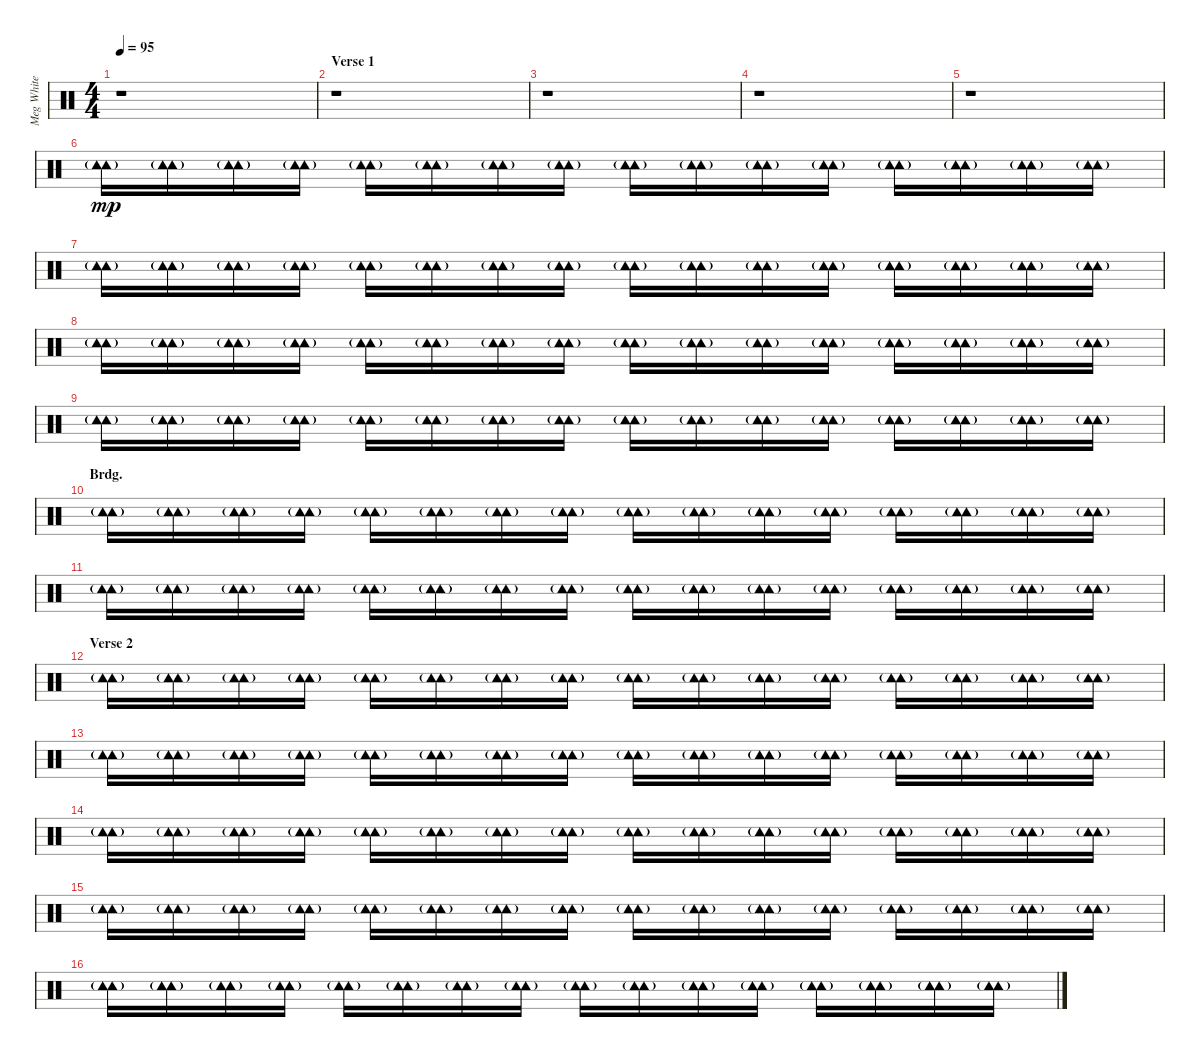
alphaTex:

\track ("Meg White - Purcussions" "Meg White ") {instrument percussion}
\staff {score}
\articulation defaults
\ts (4 4)
\tempo 95
\clef neutral
\ks c
r.1{dy mp} |
\section ("" "Verse 1")
r.1 |
r.1 |
r.1 |
r.1 |
("Tambourine (hit)"{g} "Tambourine (hit)"{g}).16 ("Tambourine (hit)"{g} "Tambourine (hit)"{g}).16 ("Tambourine (hit)"{g} "Tambourine (hit)"{g}).16 ("Tambourine (hit)"{g} "Tambourine (hit)"{g}).16 ("Tambourine (hit)"{g} "Tambourine (hit)"{g}).16 ("Tambourine (hit)"{g} "Tambourine (hit)"{g}).16 ("Tambourine (hit)"{g} "Tambourine (hit)"{g}).16 ("Tambourine (hit)"{g} "Tambourine (hit)"{g}).16 ("Tambourine (hit)"{g} "Tambourine (hit)"{g}).16 ("Tambourine (hit)"{g} "Tambourine (hit)"{g}).16 ("Tambourine (hit)"{g} "Tambourine (hit)"{g}).16 ("Tambourine (hit)"{g} "Tambourine (hit)"{g}).16 ("Tambourine (hit)"{g} "Tambourine (hit)"{g}).16 ("Tambourine (hit)"{g} "Tambourine (hit)"{g}).16 ("Tambourine (hit)"{g} "Tambourine (hit)"{g}).16 ("Tambourine (hit)"{g} "Tambourine (hit)"{g}).16 |
("Tambourine (hit)"{g} "Tambourine (hit)"{g}).16 ("Tambourine (hit)"{g} "Tambourine (hit)"{g}).16 ("Tambourine (hit)"{g} "Tambourine (hit)"{g}).16 ("Tambourine (hit)"{g} "Tambourine (hit)"{g}).16 ("Tambourine (hit)"{g} "Tambourine (hit)"{g}).16 ("Tambourine (hit)"{g} "Tambourine (hit)"{g}).16 ("Tambourine (hit)"{g} "Tambourine (hit)"{g}).16 ("Tambourine (hit)"{g} "Tambourine (hit)"{g}).16 ("Tambourine (hit)"{g} "Tambourine (hit)"{g}).16 ("Tambourine (hit)"{g} "Tambourine (hit)"{g}).16 ("Tambourine (hit)"{g} "Tambourine (hit)"{g}).16 ("Tambourine (hit)"{g} "Tambourine (hit)"{g}).16 ("Tambourine (hit)"{g} "Tambourine (hit)"{g}).16 ("Tambourine (hit)"{g} "Tambourine (hit)"{g}).16 ("Tambourine (hit)"{g} "Tambourine (hit)"{g}).16 ("Tambourine (hit)"{g} "Tambourine (hit)"{g}).16 |
("Tambourine (hit)"{g} "Tambourine (hit)"{g}).16 ("Tambourine (hit)"{g} "Tambourine (hit)"{g}).16 ("Tambourine (hit)"{g} "Tambourine (hit)"{g}).16 ("Tambourine (hit)"{g} "Tambourine (hit)"{g}).16 ("Tambourine (hit)"{g} "Tambourine (hit)"{g}).16 ("Tambourine (hit)"{g} "Tambourine (hit)"{g}).16 ("Tambourine (hit)"{g} "Tambourine (hit)"{g}).16 ("Tambourine (hit)"{g} "Tambourine (hit)"{g}).16 ("Tambourine (hit)"{g} "Tambourine (hit)"{g}).16 ("Tambourine (hit)"{g} "Tambourine (hit)"{g}).16 ("Tambourine (hit)"{g} "Tambourine (hit)"{g}).16 ("Tambourine (hit)"{g} "Tambourine (hit)"{g}).16 ("Tambourine (hit)"{g} "Tambourine (hit)"{g}).16 ("Tambourine (hit)"{g} "Tambourine (hit)"{g}).16 ("Tambourine (hit)"{g} "Tambourine (hit)"{g}).16 ("Tambourine (hit)"{g} "Tambourine (hit)"{g}).16 |
("Tambourine (hit)"{g} "Tambourine (hit)"{g}).16 ("Tambourine (hit)"{g} "Tambourine (hit)"{g}).16 ("Tambourine (hit)"{g} "Tambourine (hit)"{g}).16 ("Tambourine (hit)"{g} "Tambourine (hit)"{g}).16 ("Tambourine (hit)"{g} "Tambourine (hit)"{g}).16 ("Tambourine (hit)"{g} "Tambourine (hit)"{g}).16 ("Tambourine (hit)"{g} "Tambourine (hit)"{g}).16 ("Tambourine (hit)"{g} "Tambourine (hit)"{g}).16 ("Tambourine (hit)"{g} "Tambourine (hit)"{g}).16 ("Tambourine (hit)"{g} "Tambourine (hit)"{g}).16 ("Tambourine (hit)"{g} "Tambourine (hit)"{g}).16 ("Tambourine (hit)"{g} "Tambourine (hit)"{g}).16 ("Tambourine (hit)"{g} "Tambourine (hit)"{g}).16 ("Tambourine (hit)"{g} "Tambourine (hit)"{g}).16 ("Tambourine (hit)"{g} "Tambourine (hit)"{g}).16 ("Tambourine (hit)"{g} "Tambourine (hit)"{g}).16 |
\section ("" "Brdg.")
("Tambourine (hit)"{g} "Tambourine (hit)"{g}).16 ("Tambourine (hit)"{g} "Tambourine (hit)"{g}).16 ("Tambourine (hit)"{g} "Tambourine (hit)"{g}).16 ("Tambourine (hit)"{g} "Tambourine (hit)"{g}).16 ("Tambourine (hit)"{g} "Tambourine (hit)"{g}).16 ("Tambourine (hit)"{g} "Tambourine (hit)"{g}).16 ("Tambourine (hit)"{g} "Tambourine (hit)"{g}).16 ("Tambourine (hit)"{g} "Tambourine (hit)"{g}).16 ("Tambourine (hit)"{g} "Tambourine (hit)"{g}).16 ("Tambourine (hit)"{g} "Tambourine (hit)"{g}).16 ("Tambourine (hit)"{g} "Tambourine (hit)"{g}).16 ("Tambourine (hit)"{g} "Tambourine (hit)"{g}).16 ("Tambourine (hit)"{g} "Tambourine (hit)"{g}).16 ("Tambourine (hit)"{g} "Tambourine (hit)"{g}).16 ("Tambourine (hit)"{g} "Tambourine (hit)"{g}).16 ("Tambourine (hit)"{g} "Tambourine (hit)"{g}).16 |
("Tambourine (hit)"{g} "Tambourine (hit)"{g}).16 ("Tambourine (hit)"{g} "Tambourine (hit)"{g}).16 ("Tambourine (hit)"{g} "Tambourine (hit)"{g}).16 ("Tambourine (hit)"{g} "Tambourine (hit)"{g}).16 ("Tambourine (hit)"{g} "Tambourine (hit)"{g}).16 ("Tambourine (hit)"{g} "Tambourine (hit)"{g}).16 ("Tambourine (hit)"{g} "Tambourine (hit)"{g}).16 ("Tambourine (hit)"{g} "Tambourine (hit)"{g}).16 ("Tambourine (hit)"{g} "Tambourine (hit)"{g}).16 ("Tambourine (hit)"{g} "Tambourine (hit)"{g}).16 ("Tambourine (hit)"{g} "Tambourine (hit)"{g}).16 ("Tambourine (hit)"{g} "Tambourine (hit)"{g}).16 ("Tambourine (hit)"{g} "Tambourine (hit)"{g}).16 ("Tambourine (hit)"{g} "Tambourine (hit)"{g}).16 ("Tambourine (hit)"{g} "Tambourine (hit)"{g}).16 ("Tambourine (hit)"{g} "Tambourine (hit)"{g}).16 |
\section ("" "Verse 2")
("Tambourine (hit)"{g} "Tambourine (hit)"{g}).16 ("Tambourine (hit)"{g} "Tambourine (hit)"{g}).16 ("Tambourine (hit)"{g} "Tambourine (hit)"{g}).16 ("Tambourine (hit)"{g} "Tambourine (hit)"{g}).16 ("Tambourine (hit)"{g} "Tambourine (hit)"{g}).16 ("Tambourine (hit)"{g} "Tambourine (hit)"{g}).16 ("Tambourine (hit)"{g} "Tambourine (hit)"{g}).16 ("Tambourine (hit)"{g} "Tambourine (hit)"{g}).16 ("Tambourine (hit)"{g} "Tambourine (hit)"{g}).16 ("Tambourine (hit)"{g} "Tambourine (hit)"{g}).16 ("Tambourine (hit)"{g} "Tambourine (hit)"{g}).16 ("Tambourine (hit)"{g} "Tambourine (hit)"{g}).16 ("Tambourine (hit)"{g} "Tambourine (hit)"{g}).16 ("Tambourine (hit)"{g} "Tambourine (hit)"{g}).16 ("Tambourine (hit)"{g} "Tambourine (hit)"{g}).16 ("Tambourine (hit)"{g} "Tambourine (hit)"{g}).16 |
("Tambourine (hit)"{g} "Tambourine (hit)"{g}).16 ("Tambourine (hit)"{g} "Tambourine (hit)"{g}).16 ("Tambourine (hit)"{g} "Tambourine (hit)"{g}).16 ("Tambourine (hit)"{g} "Tambourine (hit)"{g}).16 ("Tambourine (hit)"{g} "Tambourine (hit)"{g}).16 ("Tambourine (hit)"{g} "Tambourine (hit)"{g}).16 ("Tambourine (hit)"{g} "Tambourine (hit)"{g}).16 ("Tambourine (hit)"{g} "Tambourine (hit)"{g}).16 ("Tambourine (hit)"{g} "Tambourine (hit)"{g}).16 ("Tambourine (hit)"{g} "Tambourine (hit)"{g}).16 ("Tambourine (hit)"{g} "Tambourine (hit)"{g}).16 ("Tambourine (hit)"{g} "Tambourine (hit)"{g}).16 ("Tambourine (hit)"{g} "Tambourine (hit)"{g}).16 ("Tambourine (hit)"{g} "Tambourine (hit)"{g}).16 ("Tambourine (hit)"{g} "Tambourine (hit)"{g}).16 ("Tambourine (hit)"{g} "Tambourine (hit)"{g}).16 |
("Tambourine (hit)"{g} "Tambourine (hit)"{g}).16 ("Tambourine (hit)"{g} "Tambourine (hit)"{g}).16 ("Tambourine (hit)"{g} "Tambourine (hit)"{g}).16 ("Tambourine (hit)"{g} "Tambourine (hit)"{g}).16 ("Tambourine (hit)"{g} "Tambourine (hit)"{g}).16 ("Tambourine (hit)"{g} "Tambourine (hit)"{g}).16 ("Tambourine (hit)"{g} "Tambourine (hit)"{g}).16 ("Tambourine (hit)"{g} "Tambourine (hit)"{g}).16 ("Tambourine (hit)"{g} "Tambourine (hit)"{g}).16 ("Tambourine (hit)"{g} "Tambourine (hit)"{g}).16 ("Tambourine (hit)"{g} "Tambourine (hit)"{g}).16 ("Tambourine (hit)"{g} "Tambourine (hit)"{g}).16 ("Tambourine (hit)"{g} "Tambourine (hit)"{g}).16 ("Tambourine (hit)"{g} "Tambourine (hit)"{g}).16 ("Tambourine (hit)"{g} "Tambourine (hit)"{g}).16 ("Tambourine (hit)"{g} "Tambourine (hit)"{g}).16 |
("Tambourine (hit)"{g} "Tambourine (hit)"{g}).16 ("Tambourine (hit)"{g} "Tambourine (hit)"{g}).16 ("Tambourine (hit)"{g} "Tambourine (hit)"{g}).16 ("Tambourine (hit)"{g} "Tambourine (hit)"{g}).16 ("Tambourine (hit)"{g} "Tambourine (hit)"{g}).16 ("Tambourine (hit)"{g} "Tambourine (hit)"{g}).16 ("Tambourine (hit)"{g} "Tambourine (hit)"{g}).16 ("Tambourine (hit)"{g} "Tambourine (hit)"{g}).16 ("Tambourine (hit)"{g} "Tambourine (hit)"{g}).16 ("Tambourine (hit)"{g} "Tambourine (hit)"{g}).16 ("Tambourine (hit)"{g} "Tambourine (hit)"{g}).16 ("Tambourine (hit)"{g} "Tambourine (hit)"{g}).16 ("Tambourine (hit)"{g} "Tambourine (hit)"{g}).16 ("Tambourine (hit)"{g} "Tambourine (hit)"{g}).16 ("Tambourine (hit)"{g} "Tambourine (hit)"{g}).16 ("Tambourine (hit)"{g} "Tambourine (hit)"{g}).16 |
("Tambourine (hit)"{g} "Tambourine (hit)"{g}).16 ("Tambourine (hit)"{g} "Tambourine (hit)"{g}).16 ("Tambourine (hit)"{g} "Tambourine (hit)"{g}).16 ("Tambourine (hit)"{g} "Tambourine (hit)"{g}).16 ("Tambourine (hit)"{g} "Tambourine (hit)"{g}).16 ("Tambourine (hit)"{g} "Tambourine (hit)"{g}).16 ("Tambourine (hit)"{g} "Tambourine (hit)"{g}).16 ("Tambourine (hit)"{g} "Tambourine (hit)"{g}).16 ("Tambourine (hit)"{g} "Tambourine (hit)"{g}).16 ("Tambourine (hit)"{g} "Tambourine (hit)"{g}).16 ("Tambourine (hit)"{g} "Tambourine (hit)"{g}).16 ("Tambourine (hit)"{g} "Tambourine (hit)"{g}).16 ("Tambourine (hit)"{g} "Tambourine (hit)"{g}).16 ("Tambourine (hit)"{g} "Tambourine (hit)"{g}).16 ("Tambourine (hit)"{g} "Tambourine (hit)"{g}).16 ("Tambourine (hit)"{g} "Tambourine (hit)"{g}).16
